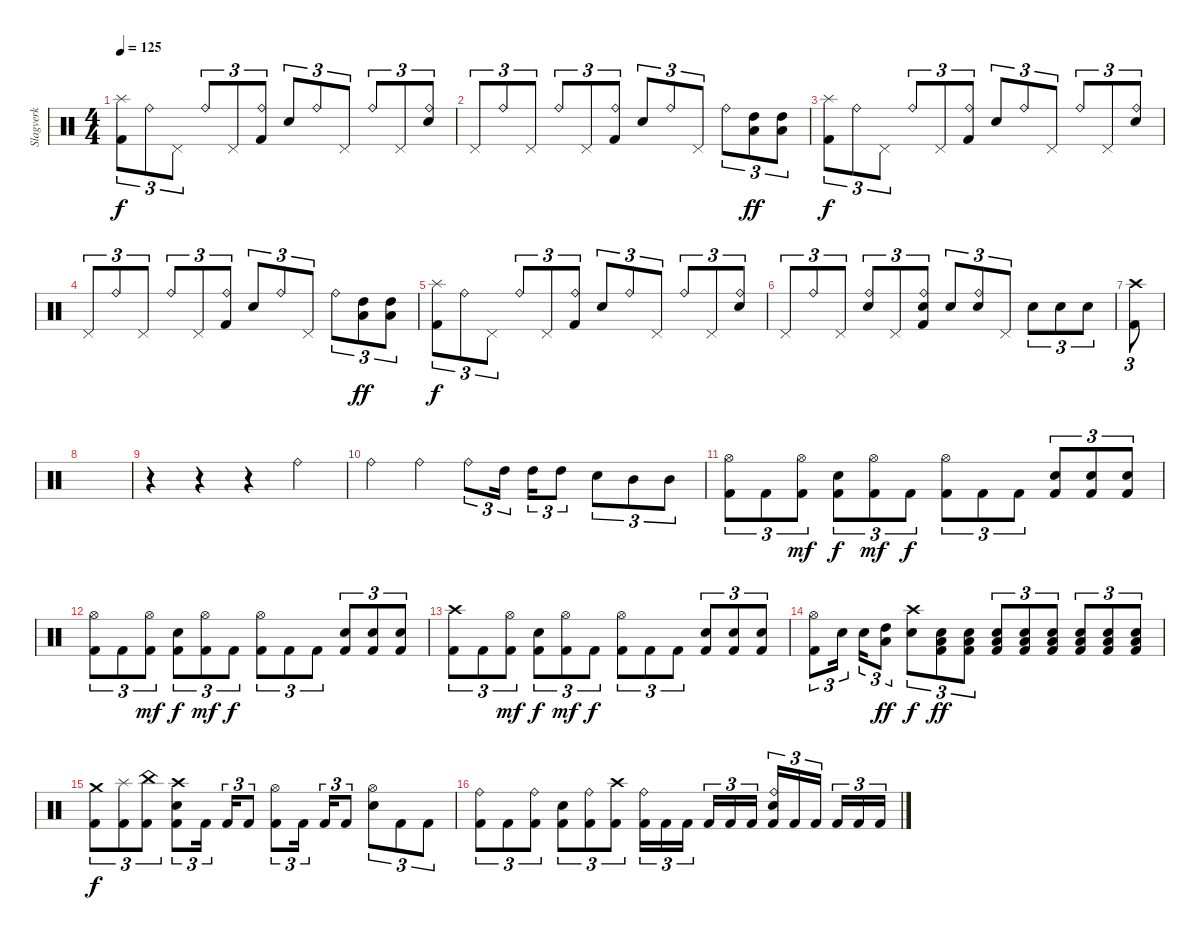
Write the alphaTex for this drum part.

\track ("Slagverk" "Slagverk") {instrument percussion}
\staff {score}
\articulation defaults
\ts (4 4)
\tempo 125
\clef neutral
\ks c
("Splash (hit)" "Kick (hit) 2").8{tu (3 2) dy f} "Ride (bell)".8{tu (3 2)} "Pedal Hi-Hat (hit)".8{tu (3 2)} "Ride (bell)".8{tu (3 2)} "Pedal Hi-Hat (hit)".8{tu (3 2)} ("Ride (bell)" "Kick (hit) 2").8{tu (3 2)} "Electric Snare (hit)".8{tu (3 2)} "Ride (bell)".8{tu (3 2)} "Pedal Hi-Hat (hit)".8{tu (3 2)} "Ride (bell)".8{tu (3 2)} "Pedal Hi-Hat (hit)".8{tu (3 2)} ("Ride (bell)" "Electric Snare (hit)").8{tu (3 2)} |
"Pedal Hi-Hat (hit)".8{tu (3 2)} "Ride (bell)".8{tu (3 2)} "Pedal Hi-Hat (hit)".8{tu (3 2)} "Ride (bell)".8{tu (3 2)} "Pedal Hi-Hat (hit)".8{tu (3 2)} ("Ride (bell)" "Kick (hit) 2").8{tu (3 2)} "Electric Snare (hit)".8{tu (3 2)} "Ride (bell)".8{tu (3 2)} "Pedal Hi-Hat (hit)".8{tu (3 2)} "Ride (bell)".8{tu (3 2)} ("High Tom (hit)" "Low Tom (hit)").8{tu (3 2) dy ff} ("High Tom (hit)" "Low Tom (hit)").8{tu (3 2)} |
("Splash (hit)" "Kick (hit) 2").8{tu (3 2) dy f} "Ride (bell)".8{tu (3 2)} "Pedal Hi-Hat (hit)".8{tu (3 2)} "Ride (bell)".8{tu (3 2)} "Pedal Hi-Hat (hit)".8{tu (3 2)} ("Ride (bell)" "Kick (hit) 2").8{tu (3 2)} "Electric Snare (hit)".8{tu (3 2)} "Ride (bell)".8{tu (3 2)} "Pedal Hi-Hat (hit)".8{tu (3 2)} "Ride (bell)".8{tu (3 2)} "Pedal Hi-Hat (hit)".8{tu (3 2)} ("Ride (bell)" "Electric Snare (hit)").8{tu (3 2)} |
"Pedal Hi-Hat (hit)".8{tu (3 2)} "Ride (bell)".8{tu (3 2)} "Pedal Hi-Hat (hit)".8{tu (3 2)} "Ride (bell)".8{tu (3 2)} "Pedal Hi-Hat (hit)".8{tu (3 2)} ("Ride (bell)" "Kick (hit) 2").8{tu (3 2)} "Electric Snare (hit)".8{tu (3 2)} "Ride (bell)".8{tu (3 2)} "Pedal Hi-Hat (hit)".8{tu (3 2)} "Ride (bell)".8{tu (3 2)} ("High Tom (hit)" "Low Tom (hit)").8{tu (3 2) dy ff} ("High Tom (hit)" "Low Tom (hit)").8{tu (3 2)} |
("Splash (hit)" "Kick (hit) 2").8{tu (3 2) dy f} "Ride (bell)".8{tu (3 2)} "Pedal Hi-Hat (hit)".8{tu (3 2)} "Ride (bell)".8{tu (3 2)} "Pedal Hi-Hat (hit)".8{tu (3 2)} ("Ride (bell)" "Kick (hit) 2").8{tu (3 2)} "Electric Snare (hit)".8{tu (3 2)} "Ride (bell)".8{tu (3 2)} "Pedal Hi-Hat (hit)".8{tu (3 2)} "Ride (bell)".8{tu (3 2)} "Pedal Hi-Hat (hit)".8{tu (3 2)} ("Ride (bell)" "Electric Snare (hit)").8{tu (3 2)} |
"Pedal Hi-Hat (hit)".8{tu (3 2)} "Ride (bell)".8{tu (3 2)} "Pedal Hi-Hat (hit)".8{tu (3 2)} ("Ride (bell)" "Electric Snare (hit)").8{tu (3 2)} "Pedal Hi-Hat (hit)".8{tu (3 2)} ("Ride (bell)" "Electric Snare (hit)" "Kick (hit) 2").8{tu (3 2)} "Electric Snare (hit)".8{tu (3 2)} ("Ride (bell)" "Electric Snare (hit)").8{tu (3 2)} "Pedal Hi-Hat (hit)".8{tu (3 2)} "Electric Snare (hit)".8{tu (3 2)} "Electric Snare (hit)".8{tu (3 2)} "Electric Snare (hit)".8{tu (3 2)} |
("Crash high (hit)" "Kick (hit) 2").8{tu (3 2)} |
|
r.4 r.4 r.4 "Ride (bell)".4 |
"Ride (bell)".4 "Ride (bell)".4 "Ride (bell)".8{tu (3 2)} "High Tom (hit)".16{tu (3 2) beam splitsecondary} "High Tom (hit)".16{tu (3 2)} "High Tom (hit)".8{tu (3 2)} "Electric Snare (hit)".8{tu (3 2)} "Mid Tom (hit)".8{tu (3 2)} "Mid Tom (hit)".8{tu (3 2)} |
("Hi-Hat (open)" "Kick (hit) 2").8{tu (3 2)} "Kick (hit) 2".8{tu (3 2)} ("Hi-Hat (open)" "Kick (hit) 2").8{tu (3 2) dy mf} ("Electric Snare (hit)" "Kick (hit) 2").8{tu (3 2) dy f} ("Hi-Hat (open)" "Kick (hit) 2").8{tu (3 2) dy mf} "Kick (hit) 2".8{tu (3 2) dy f} ("Hi-Hat (open)" "Kick (hit) 2").8{tu (3 2)} "Kick (hit) 2".8{tu (3 2)} "Kick (hit) 2".8{tu (3 2)} ("Electric Snare (hit)" "Kick (hit) 2").8{tu (3 2)} ("Electric Snare (hit)" "Kick (hit) 2").8{tu (3 2)} ("Electric Snare (hit)" "Kick (hit) 2").8{tu (3 2)} |
("Hi-Hat (open)" "Kick (hit) 2").8{tu (3 2)} "Kick (hit) 2".8{tu (3 2)} ("Hi-Hat (open)" "Kick (hit) 2").8{tu (3 2) dy mf} ("Electric Snare (hit)" "Kick (hit) 2").8{tu (3 2) dy f} ("Hi-Hat (open)" "Kick (hit) 2").8{tu (3 2) dy mf} "Kick (hit) 2".8{tu (3 2) dy f} ("Hi-Hat (open)" "Kick (hit) 2").8{tu (3 2)} "Kick (hit) 2".8{tu (3 2)} "Kick (hit) 2".8{tu (3 2)} ("Electric Snare (hit)" "Kick (hit) 2").8{tu (3 2)} ("Electric Snare (hit)" "Kick (hit) 2").8{tu (3 2)} ("Electric Snare (hit)" "Kick (hit) 2").8{tu (3 2)} |
("Crash high (hit)" "Kick (hit) 2").8{tu (3 2)} "Kick (hit) 2".8{tu (3 2)} ("Hi-Hat (open)" "Kick (hit) 2").8{tu (3 2) dy mf} ("Electric Snare (hit)" "Kick (hit) 2").8{tu (3 2) dy f} ("Hi-Hat (open)" "Kick (hit) 2").8{tu (3 2) dy mf} "Kick (hit) 2".8{tu (3 2) dy f} ("Hi-Hat (open)" "Kick (hit) 2").8{tu (3 2)} "Kick (hit) 2".8{tu (3 2)} "Kick (hit) 2".8{tu (3 2)} ("Electric Snare (hit)" "Kick (hit) 2").8{tu (3 2)} ("Electric Snare (hit)" "Kick (hit) 2").8{tu (3 2)} ("Electric Snare (hit)" "Kick (hit) 2").8{tu (3 2)} |
("Hi-Hat (open)" "Kick (hit) 2").8{tu (3 2)} "Electric Snare (hit)".16{tu (3 2) beam splitsecondary} "Electric Snare (hit)".16{tu (3 2)} ("Low Tom (hit)" "High Tom (hit)").8{tu (3 2) dy ff} ("Crash high (hit)" "Electric Snare (hit)").8{tu (3 2) dy f} ("Electric Snare (hit)" "Low Tom (hit)" "Kick (hit) 2").8{tu (3 2) dy ff} ("Electric Snare (hit)" "Low Tom (hit)" "Kick (hit) 2").8{tu (3 2)} ("Electric Snare (hit)" "Low Tom (hit)" "Kick (hit) 2").8{tu (3 2)} ("Electric Snare (hit)" "Low Tom (hit)" "Kick (hit) 2").8{tu (3 2)} ("Electric Snare (hit)" "Low Tom (hit)" "Kick (hit) 2").8{tu (3 2)} ("Electric Snare (hit)" "Low Tom (hit)" "Kick (hit) 2").8{tu (3 2)} ("Electric Snare (hit)" "Low Tom (hit)" "Kick (hit) 2").8{tu (3 2)} ("Electric Snare (hit)" "Low Tom (hit)" "Kick (hit) 2").8{tu (3 2)} |
("Crash medium (hit)" "Kick (hit) 2").8{tu (3 2) dy f} ("Splash (hit)" "Kick (hit) 2").8{tu (3 2)} ("China (hit)" "Kick (hit) 2").8{tu (3 2)} ("Crash high (hit)" "Electric Snare (hit)" "Kick (hit) 2").8{tu (3 2)} "Kick (hit) 2".16{tu (3 2) beam splitsecondary} "Kick (hit) 2".16{tu (3 2)} "Kick (hit) 2".8{tu (3 2)} ("Hi-Hat (open)" "Kick (hit) 2").8{tu (3 2)} "Kick (hit) 2".16{tu (3 2) beam splitsecondary} "Kick (hit) 2".16{tu (3 2)} "Kick (hit) 2".8{tu (3 2)} ("Hi-Hat (open)" "Electric Snare (hit)").8{tu (3 2)} "Kick (hit) 2".8{tu (3 2)} "Kick (hit) 2".8{tu (3 2)} |
("Ride (bell)" "Kick (hit) 2").8{tu (3 2)} "Kick (hit) 2".8{tu (3 2)} ("Ride (bell)" "Kick (hit) 2").8{tu (3 2)} ("Electric Snare (hit)" "Kick (hit) 2").8{tu (3 2)} ("Ride (bell)" "Kick (hit) 2").8{tu (3 2)} ("Crash high (hit)" "Kick (hit) 2").8{tu (3 2)} ("Ride (bell)" "Kick (hit) 2").16{tu (3 2)} "Kick (hit) 2".16{tu (3 2)} "Kick (hit) 2".16{tu (3 2) beam splitsecondary} "Kick (hit) 2".16{tu (3 2)} "Kick (hit) 2".16{tu (3 2)} "Kick (hit) 2".16{tu (3 2)} ("Ride (bell)" "Electric Snare (hit)" "Kick (hit) 2").16{tu (3 2)} "Kick (hit) 2".16{tu (3 2)} "Kick (hit) 2".16{tu (3 2) beam splitsecondary} "Kick (hit) 2".16{tu (3 2)} "Kick (hit) 2".16{tu (3 2)} "Kick (hit) 2".16{tu (3 2)}
